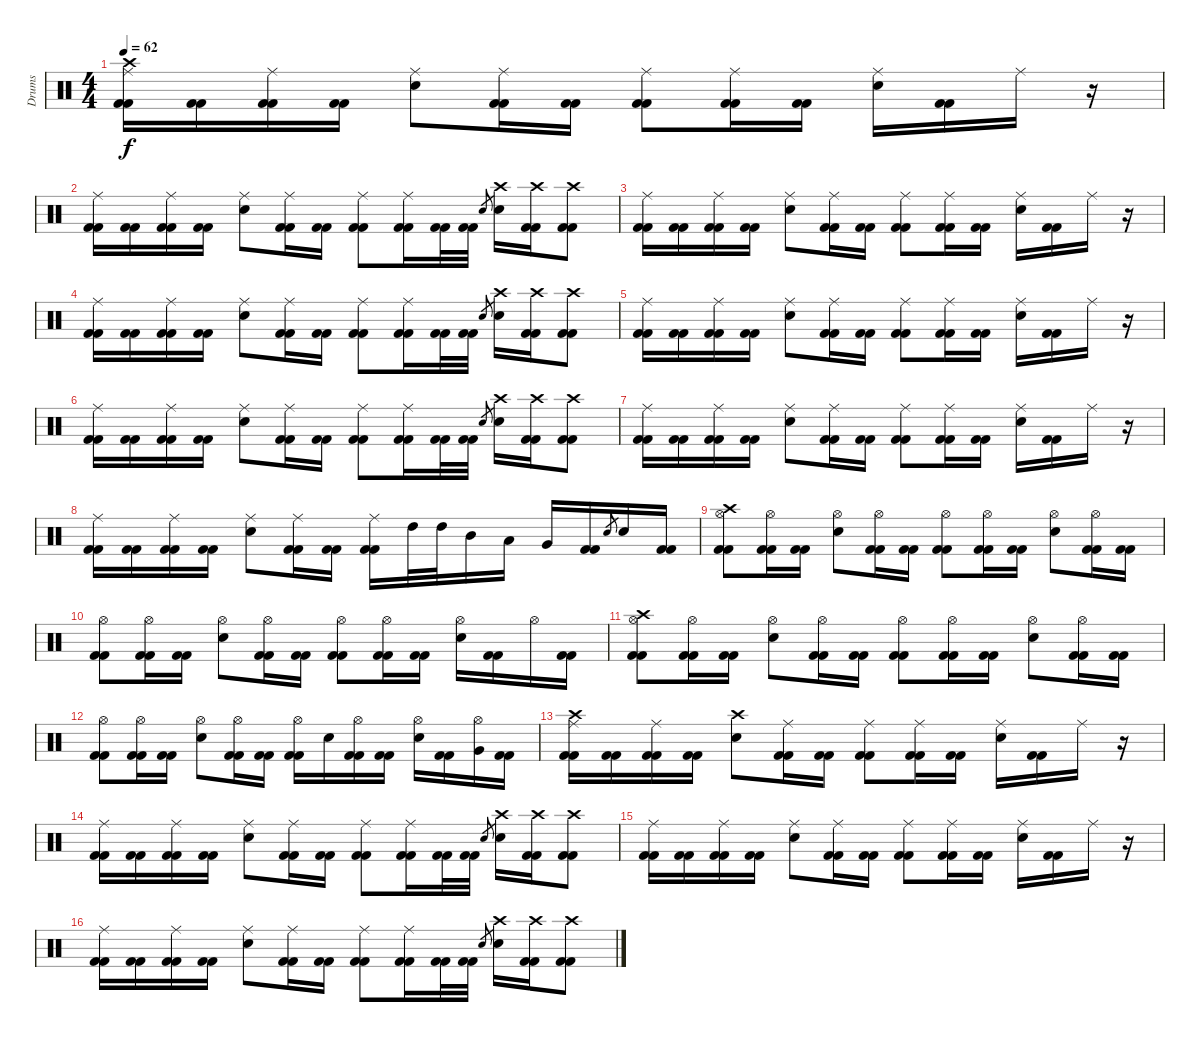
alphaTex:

\track ("Drums" "Drums") {instrument percussion}
\staff {score}
\articulation defaults
\ts (4 4)
\tempo 62
\clef neutral
\ks c
("Kick (hit) 2" "Kick (hit) 2" "Ride (middle)" "Crash high (hit)").16{dy f} ("Kick (hit) 2" "Kick (hit) 2").16 ("Kick (hit) 2" "Kick (hit) 2" "Ride (middle)").16 ("Kick (hit) 2" "Kick (hit) 2").16 ("Electric Snare (hit)" "Ride (middle)").8 ("Kick (hit) 2" "Kick (hit) 2" "Ride (middle)").16 ("Kick (hit) 2" "Kick (hit) 2").16 ("Kick (hit) 2" "Kick (hit) 2" "Ride (middle)").8 ("Kick (hit) 2" "Kick (hit) 2" "Ride (middle)").16 ("Kick (hit) 2" "Kick (hit) 2").16 ("Electric Snare (hit)" "Ride (middle)").16 ("Kick (hit) 2" "Kick (hit) 2").16 "Ride (middle)".16 r.16 |
("Kick (hit) 2" "Kick (hit) 2" "Ride (middle)").16 ("Kick (hit) 2" "Kick (hit) 2").16 ("Kick (hit) 2" "Kick (hit) 2" "Ride (middle)").16 ("Kick (hit) 2" "Kick (hit) 2").16 ("Electric Snare (hit)" "Ride (middle)").8 ("Kick (hit) 2" "Kick (hit) 2" "Ride (middle)").16 ("Kick (hit) 2" "Kick (hit) 2").16 ("Kick (hit) 2" "Kick (hit) 2" "Ride (middle)").8 ("Kick (hit) 2" "Kick (hit) 2" "Ride (middle)").16 ("Kick (hit) 2" "Kick (hit) 2").32 ("Kick (hit) 2" "Kick (hit) 2").32 "Electric Snare (hit)".8{gr} ("Electric Snare (hit)" "Crash high (hit)").16 ("Kick (hit) 2" "Kick (hit) 2" "Crash high (hit)").16 ("Kick (hit) 2" "Kick (hit) 2" "Crash high (hit)").8 |
("Kick (hit) 2" "Kick (hit) 2" "Ride (middle)").16 ("Kick (hit) 2" "Kick (hit) 2").16 ("Kick (hit) 2" "Kick (hit) 2" "Ride (middle)").16 ("Kick (hit) 2" "Kick (hit) 2").16 ("Electric Snare (hit)" "Ride (middle)").8 ("Kick (hit) 2" "Kick (hit) 2" "Ride (middle)").16 ("Kick (hit) 2" "Kick (hit) 2").16 ("Kick (hit) 2" "Kick (hit) 2" "Ride (middle)").8 ("Kick (hit) 2" "Kick (hit) 2" "Ride (middle)").16 ("Kick (hit) 2" "Kick (hit) 2").16 ("Electric Snare (hit)" "Ride (middle)").16 ("Kick (hit) 2" "Kick (hit) 2").16 "Ride (middle)".16 r.16 |
("Kick (hit) 2" "Kick (hit) 2" "Ride (middle)").16 ("Kick (hit) 2" "Kick (hit) 2").16 ("Kick (hit) 2" "Kick (hit) 2" "Ride (middle)").16 ("Kick (hit) 2" "Kick (hit) 2").16 ("Electric Snare (hit)" "Ride (middle)").8 ("Kick (hit) 2" "Kick (hit) 2" "Ride (middle)").16 ("Kick (hit) 2" "Kick (hit) 2").16 ("Kick (hit) 2" "Kick (hit) 2" "Ride (middle)").8 ("Kick (hit) 2" "Kick (hit) 2" "Ride (middle)").16 ("Kick (hit) 2" "Kick (hit) 2").32 ("Kick (hit) 2" "Kick (hit) 2").32 "Electric Snare (hit)".8{gr} ("Electric Snare (hit)" "Crash high (hit)").16 ("Kick (hit) 2" "Kick (hit) 2" "Crash high (hit)").16 ("Kick (hit) 2" "Kick (hit) 2" "Crash high (hit)").8 |
("Kick (hit) 2" "Kick (hit) 2" "Ride (middle)").16 ("Kick (hit) 2" "Kick (hit) 2").16 ("Kick (hit) 2" "Kick (hit) 2" "Ride (middle)").16 ("Kick (hit) 2" "Kick (hit) 2").16 ("Electric Snare (hit)" "Ride (middle)").8 ("Kick (hit) 2" "Kick (hit) 2" "Ride (middle)").16 ("Kick (hit) 2" "Kick (hit) 2").16 ("Kick (hit) 2" "Kick (hit) 2" "Ride (middle)").8 ("Kick (hit) 2" "Kick (hit) 2" "Ride (middle)").16 ("Kick (hit) 2" "Kick (hit) 2").16 ("Electric Snare (hit)" "Ride (middle)").16 ("Kick (hit) 2" "Kick (hit) 2").16 "Ride (middle)".16 r.16 |
("Kick (hit) 2" "Kick (hit) 2" "Ride (middle)").16 ("Kick (hit) 2" "Kick (hit) 2").16 ("Kick (hit) 2" "Kick (hit) 2" "Ride (middle)").16 ("Kick (hit) 2" "Kick (hit) 2").16 ("Electric Snare (hit)" "Ride (middle)").8 ("Kick (hit) 2" "Kick (hit) 2" "Ride (middle)").16 ("Kick (hit) 2" "Kick (hit) 2").16 ("Kick (hit) 2" "Kick (hit) 2" "Ride (middle)").8 ("Kick (hit) 2" "Kick (hit) 2" "Ride (middle)").16 ("Kick (hit) 2" "Kick (hit) 2").32 ("Kick (hit) 2" "Kick (hit) 2").32 "Electric Snare (hit)".8{gr} ("Electric Snare (hit)" "Crash high (hit)").16 ("Kick (hit) 2" "Kick (hit) 2" "Crash high (hit)").16 ("Kick (hit) 2" "Kick (hit) 2" "Crash high (hit)").8 |
("Kick (hit) 2" "Kick (hit) 2" "Ride (middle)").16 ("Kick (hit) 2" "Kick (hit) 2").16 ("Kick (hit) 2" "Kick (hit) 2" "Ride (middle)").16 ("Kick (hit) 2" "Kick (hit) 2").16 ("Electric Snare (hit)" "Ride (middle)").8 ("Kick (hit) 2" "Kick (hit) 2" "Ride (middle)").16 ("Kick (hit) 2" "Kick (hit) 2").16 ("Kick (hit) 2" "Kick (hit) 2" "Ride (middle)").8 ("Kick (hit) 2" "Kick (hit) 2" "Ride (middle)").16 ("Kick (hit) 2" "Kick (hit) 2").16 ("Electric Snare (hit)" "Ride (middle)").16 ("Kick (hit) 2" "Kick (hit) 2").16 "Ride (middle)".16 r.16 |
("Kick (hit) 2" "Kick (hit) 2" "Ride (middle)").16 ("Kick (hit) 2" "Kick (hit) 2").16 ("Kick (hit) 2" "Kick (hit) 2" "Ride (middle)").16 ("Kick (hit) 2" "Kick (hit) 2").16 ("Electric Snare (hit)" "Ride (middle)").8 ("Kick (hit) 2" "Kick (hit) 2" "Ride (middle)").16 ("Kick (hit) 2" "Kick (hit) 2").16 ("Kick (hit) 2" "Kick (hit) 2" "Ride (middle)").16 "High Tom (hit)".32 "High Tom (hit)".32 "Mid Tom (hit)".16 "Low Tom (hit)".16 "Very Low Tom (hit)".16 ("Kick (hit) 2" "Kick (hit) 2").16 "Electric Snare (hit)".8{gr} "Electric Snare (hit)".16 ("Kick (hit) 2" "Kick (hit) 2").16 |
("Kick (hit) 2" "Kick (hit) 2" "Hi-Hat (open)" "Crash high (hit)").8 ("Kick (hit) 2" "Kick (hit) 2" "Hi-Hat (open)").16 ("Kick (hit) 2" "Kick (hit) 2").16 ("Electric Snare (hit)" "Hi-Hat (open)").8 ("Kick (hit) 2" "Kick (hit) 2" "Hi-Hat (open)").16 ("Kick (hit) 2" "Kick (hit) 2").16 ("Kick (hit) 2" "Kick (hit) 2" "Hi-Hat (open)").8 ("Kick (hit) 2" "Kick (hit) 2" "Hi-Hat (open)").16 ("Kick (hit) 2" "Kick (hit) 2").16 ("Electric Snare (hit)" "Hi-Hat (open)").8 ("Kick (hit) 2" "Kick (hit) 2" "Hi-Hat (open)").16 ("Kick (hit) 2" "Kick (hit) 2").16 |
("Kick (hit) 2" "Kick (hit) 2" "Hi-Hat (open)").8 ("Kick (hit) 2" "Kick (hit) 2" "Hi-Hat (open)").16 ("Kick (hit) 2" "Kick (hit) 2").16 ("Electric Snare (hit)" "Hi-Hat (open)").8 ("Kick (hit) 2" "Kick (hit) 2" "Hi-Hat (open)").16 ("Kick (hit) 2" "Kick (hit) 2").16 ("Kick (hit) 2" "Kick (hit) 2" "Hi-Hat (open)").8 ("Kick (hit) 2" "Kick (hit) 2" "Hi-Hat (open)").16 ("Kick (hit) 2" "Kick (hit) 2").16 ("Electric Snare (hit)" "Hi-Hat (open)").16 ("Kick (hit) 2" "Kick (hit) 2").16 "Hi-Hat (open)".16 ("Kick (hit) 2" "Kick (hit) 2").16 |
("Kick (hit) 2" "Kick (hit) 2" "Hi-Hat (open)" "Crash high (hit)").8 ("Kick (hit) 2" "Kick (hit) 2" "Hi-Hat (open)").16 ("Kick (hit) 2" "Kick (hit) 2").16 ("Electric Snare (hit)" "Hi-Hat (open)").8 ("Kick (hit) 2" "Kick (hit) 2" "Hi-Hat (open)").16 ("Kick (hit) 2" "Kick (hit) 2").16 ("Kick (hit) 2" "Kick (hit) 2" "Hi-Hat (open)").8 ("Kick (hit) 2" "Kick (hit) 2" "Hi-Hat (open)").16 ("Kick (hit) 2" "Kick (hit) 2").16 ("Electric Snare (hit)" "Hi-Hat (open)").8 ("Kick (hit) 2" "Kick (hit) 2" "Hi-Hat (open)").16 ("Kick (hit) 2" "Kick (hit) 2").16 |
("Kick (hit) 2" "Kick (hit) 2" "Hi-Hat (open)").8 ("Kick (hit) 2" "Kick (hit) 2" "Hi-Hat (open)").16 ("Kick (hit) 2" "Kick (hit) 2").16 ("Electric Snare (hit)" "Hi-Hat (open)").8 ("Kick (hit) 2" "Kick (hit) 2" "Hi-Hat (open)").16 ("Kick (hit) 2" "Kick (hit) 2").16 ("Kick (hit) 2" "Kick (hit) 2" "Hi-Hat (open)").16 "Electric Snare (hit)".16 ("Kick (hit) 2" "Kick (hit) 2" "Hi-Hat (open)").16 ("Kick (hit) 2" "Kick (hit) 2").16 ("Electric Snare (hit)" "Hi-Hat (open)").16 ("Kick (hit) 2" "Kick (hit) 2").16 ("Very Low Tom (hit)" "Hi-Hat (open)").16 ("Kick (hit) 2" "Kick (hit) 2").16 |
("Kick (hit) 2" "Kick (hit) 2" "Ride (middle)" "Crash high (hit)").16 ("Kick (hit) 2" "Kick (hit) 2").16 ("Kick (hit) 2" "Kick (hit) 2" "Ride (middle)").16 ("Kick (hit) 2" "Kick (hit) 2").16 ("Electric Snare (hit)" "Crash high (hit)").8 ("Kick (hit) 2" "Kick (hit) 2" "Ride (middle)").16 ("Kick (hit) 2" "Kick (hit) 2").16 ("Kick (hit) 2" "Kick (hit) 2" "Ride (middle)").8 ("Kick (hit) 2" "Kick (hit) 2" "Ride (middle)").16 ("Kick (hit) 2" "Kick (hit) 2").16 ("Electric Snare (hit)" "Ride (middle)").16 ("Kick (hit) 2" "Kick (hit) 2").16 "Ride (middle)".16 r.16 |
("Kick (hit) 2" "Kick (hit) 2" "Ride (middle)").16 ("Kick (hit) 2" "Kick (hit) 2").16 ("Kick (hit) 2" "Kick (hit) 2" "Ride (middle)").16 ("Kick (hit) 2" "Kick (hit) 2").16 ("Electric Snare (hit)" "Ride (middle)").8 ("Kick (hit) 2" "Kick (hit) 2" "Ride (middle)").16 ("Kick (hit) 2" "Kick (hit) 2").16 ("Kick (hit) 2" "Kick (hit) 2" "Ride (middle)").8 ("Kick (hit) 2" "Kick (hit) 2" "Ride (middle)").16 ("Kick (hit) 2" "Kick (hit) 2").32 ("Kick (hit) 2" "Kick (hit) 2").32 "Electric Snare (hit)".8{gr} ("Electric Snare (hit)" "Crash high (hit)").16 ("Kick (hit) 2" "Kick (hit) 2" "Crash high (hit)").16 ("Kick (hit) 2" "Kick (hit) 2" "Crash high (hit)").8 |
("Kick (hit) 2" "Kick (hit) 2" "Ride (middle)").16 ("Kick (hit) 2" "Kick (hit) 2").16 ("Kick (hit) 2" "Kick (hit) 2" "Ride (middle)").16 ("Kick (hit) 2" "Kick (hit) 2").16 ("Electric Snare (hit)" "Ride (middle)").8 ("Kick (hit) 2" "Kick (hit) 2" "Ride (middle)").16 ("Kick (hit) 2" "Kick (hit) 2").16 ("Kick (hit) 2" "Kick (hit) 2" "Ride (middle)").8 ("Kick (hit) 2" "Kick (hit) 2" "Ride (middle)").16 ("Kick (hit) 2" "Kick (hit) 2").16 ("Electric Snare (hit)" "Ride (middle)").16 ("Kick (hit) 2" "Kick (hit) 2").16 "Ride (middle)".16 r.16 |
("Kick (hit) 2" "Kick (hit) 2" "Ride (middle)").16 ("Kick (hit) 2" "Kick (hit) 2").16 ("Kick (hit) 2" "Kick (hit) 2" "Ride (middle)").16 ("Kick (hit) 2" "Kick (hit) 2").16 ("Electric Snare (hit)" "Ride (middle)").8 ("Kick (hit) 2" "Kick (hit) 2" "Ride (middle)").16 ("Kick (hit) 2" "Kick (hit) 2").16 ("Kick (hit) 2" "Kick (hit) 2" "Ride (middle)").8 ("Kick (hit) 2" "Kick (hit) 2" "Ride (middle)").16 ("Kick (hit) 2" "Kick (hit) 2").32 ("Kick (hit) 2" "Kick (hit) 2").32 "Electric Snare (hit)".8{gr} ("Electric Snare (hit)" "Crash high (hit)").16 ("Kick (hit) 2" "Kick (hit) 2" "Crash high (hit)").16 ("Kick (hit) 2" "Kick (hit) 2" "Crash high (hit)").8
